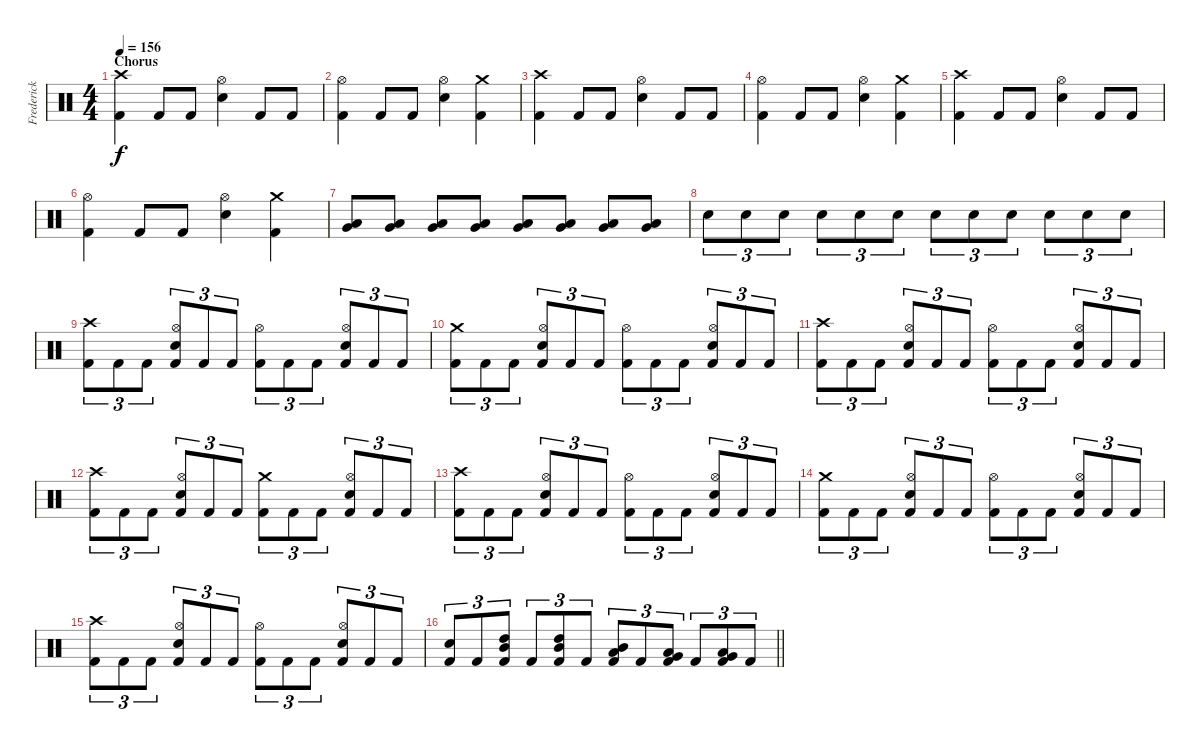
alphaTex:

\track ("Frederick Ehmke" "Frederick ") {instrument percussion}
\staff {score}
\articulation defaults
\ts (4 4)
\section ("" "Chorus")
\tempo 156
\clef neutral
\ks c
("Crash high (hit)" "Kick (hit) 2").4{dy f} "Kick (hit) 2".8 "Kick (hit) 2".8 ("Hi-Hat (open)" "Electric Snare (hit)").4 "Kick (hit) 2".8 "Kick (hit) 2".8 |
("Hi-Hat (open)" "Kick (hit) 2").4 "Kick (hit) 2".8 "Kick (hit) 2".8 ("Hi-Hat (open)" "Electric Snare (hit)").4 ("Crash medium (hit)" "Kick (hit) 2").4 |
("Crash high (hit)" "Kick (hit) 2").4 "Kick (hit) 2".8 "Kick (hit) 2".8 ("Hi-Hat (open)" "Electric Snare (hit)").4 "Kick (hit) 2".8 "Kick (hit) 2".8 |
("Hi-Hat (open)" "Kick (hit) 2").4 "Kick (hit) 2".8 "Kick (hit) 2".8 ("Hi-Hat (open)" "Electric Snare (hit)").4 ("Crash medium (hit)" "Kick (hit) 2").4 |
("Crash high (hit)" "Kick (hit) 2").4 "Kick (hit) 2".8 "Kick (hit) 2".8 ("Hi-Hat (open)" "Electric Snare (hit)").4 "Kick (hit) 2".8 "Kick (hit) 2".8 |
("Hi-Hat (open)" "Kick (hit) 2").4 "Kick (hit) 2".8 "Kick (hit) 2".8 ("Hi-Hat (open)" "Electric Snare (hit)").4 ("Crash medium (hit)" "Kick (hit) 2").4 |
("Low Tom (hit)" "Very Low Tom (hit)").8 ("Low Tom (hit)" "Very Low Tom (hit)").8 ("Low Tom (hit)" "Very Low Tom (hit)").8 ("Low Tom (hit)" "Very Low Tom (hit)").8 ("Low Tom (hit)" "Very Low Tom (hit)").8 ("Low Tom (hit)" "Very Low Tom (hit)").8 ("Low Tom (hit)" "Very Low Tom (hit)").8 ("Low Tom (hit)" "Very Low Tom (hit)").8 |
"Electric Snare (hit)".8{tu (3 2)} "Electric Snare (hit)".8{tu (3 2)} "Electric Snare (hit)".8{tu (3 2)} "Electric Snare (hit)".8{tu (3 2)} "Electric Snare (hit)".8{tu (3 2)} "Electric Snare (hit)".8{tu (3 2)} "Electric Snare (hit)".8{tu (3 2)} "Electric Snare (hit)".8{tu (3 2)} "Electric Snare (hit)".8{tu (3 2)} "Electric Snare (hit)".8{tu (3 2)} "Electric Snare (hit)".8{tu (3 2)} "Electric Snare (hit)".8{tu (3 2)} |
("Crash high (hit)" "Kick (hit) 2").8{tu (3 2)} "Kick (hit) 2".8{tu (3 2)} "Kick (hit) 2".8{tu (3 2)} ("Hi-Hat (open)" "Kick (hit) 2" "Electric Snare (hit)").8{tu (3 2)} "Kick (hit) 2".8{tu (3 2)} "Kick (hit) 2".8{tu (3 2)} ("Hi-Hat (open)" "Kick (hit) 2").8{tu (3 2)} "Kick (hit) 2".8{tu (3 2)} "Kick (hit) 2".8{tu (3 2)} ("Hi-Hat (open)" "Kick (hit) 2" "Electric Snare (hit)").8{tu (3 2)} "Kick (hit) 2".8{tu (3 2)} "Kick (hit) 2".8{tu (3 2)} |
("Crash medium (hit)" "Kick (hit) 2").8{tu (3 2)} "Kick (hit) 2".8{tu (3 2)} "Kick (hit) 2".8{tu (3 2)} ("Hi-Hat (open)" "Kick (hit) 2" "Electric Snare (hit)").8{tu (3 2)} "Kick (hit) 2".8{tu (3 2)} "Kick (hit) 2".8{tu (3 2)} ("Hi-Hat (open)" "Kick (hit) 2").8{tu (3 2)} "Kick (hit) 2".8{tu (3 2)} "Kick (hit) 2".8{tu (3 2)} ("Hi-Hat (open)" "Kick (hit) 2" "Electric Snare (hit)").8{tu (3 2)} "Kick (hit) 2".8{tu (3 2)} "Kick (hit) 2".8{tu (3 2)} |
("Crash high (hit)" "Kick (hit) 2").8{tu (3 2)} "Kick (hit) 2".8{tu (3 2)} "Kick (hit) 2".8{tu (3 2)} ("Hi-Hat (open)" "Kick (hit) 2" "Electric Snare (hit)").8{tu (3 2)} "Kick (hit) 2".8{tu (3 2)} "Kick (hit) 2".8{tu (3 2)} ("Hi-Hat (open)" "Kick (hit) 2").8{tu (3 2)} "Kick (hit) 2".8{tu (3 2)} "Kick (hit) 2".8{tu (3 2)} ("Hi-Hat (open)" "Kick (hit) 2" "Electric Snare (hit)").8{tu (3 2)} "Kick (hit) 2".8{tu (3 2)} "Kick (hit) 2".8{tu (3 2)} |
("Crash high (hit)" "Kick (hit) 2").8{tu (3 2)} "Kick (hit) 2".8{tu (3 2)} "Kick (hit) 2".8{tu (3 2)} ("Hi-Hat (open)" "Kick (hit) 2" "Electric Snare (hit)").8{tu (3 2)} "Kick (hit) 2".8{tu (3 2)} "Kick (hit) 2".8{tu (3 2)} ("Crash medium (hit)" "Kick (hit) 2").8{tu (3 2)} "Kick (hit) 2".8{tu (3 2)} "Kick (hit) 2".8{tu (3 2)} ("Hi-Hat (open)" "Kick (hit) 2" "Electric Snare (hit)").8{tu (3 2)} "Kick (hit) 2".8{tu (3 2)} "Kick (hit) 2".8{tu (3 2)} |
("Crash high (hit)" "Kick (hit) 2").8{tu (3 2)} "Kick (hit) 2".8{tu (3 2)} "Kick (hit) 2".8{tu (3 2)} ("Hi-Hat (open)" "Kick (hit) 2" "Electric Snare (hit)").8{tu (3 2)} "Kick (hit) 2".8{tu (3 2)} "Kick (hit) 2".8{tu (3 2)} ("Hi-Hat (open)" "Kick (hit) 2").8{tu (3 2)} "Kick (hit) 2".8{tu (3 2)} "Kick (hit) 2".8{tu (3 2)} ("Hi-Hat (open)" "Kick (hit) 2" "Electric Snare (hit)").8{tu (3 2)} "Kick (hit) 2".8{tu (3 2)} "Kick (hit) 2".8{tu (3 2)} |
("Crash medium (hit)" "Kick (hit) 2").8{tu (3 2)} "Kick (hit) 2".8{tu (3 2)} "Kick (hit) 2".8{tu (3 2)} ("Hi-Hat (open)" "Kick (hit) 2" "Electric Snare (hit)").8{tu (3 2)} "Kick (hit) 2".8{tu (3 2)} "Kick (hit) 2".8{tu (3 2)} ("Hi-Hat (open)" "Kick (hit) 2").8{tu (3 2)} "Kick (hit) 2".8{tu (3 2)} "Kick (hit) 2".8{tu (3 2)} ("Hi-Hat (open)" "Kick (hit) 2" "Electric Snare (hit)").8{tu (3 2)} "Kick (hit) 2".8{tu (3 2)} "Kick (hit) 2".8{tu (3 2)} |
("Crash high (hit)" "Kick (hit) 2").8{tu (3 2)} "Kick (hit) 2".8{tu (3 2)} "Kick (hit) 2".8{tu (3 2)} ("Hi-Hat (open)" "Kick (hit) 2" "Electric Snare (hit)").8{tu (3 2)} "Kick (hit) 2".8{tu (3 2)} "Kick (hit) 2".8{tu (3 2)} ("Hi-Hat (open)" "Kick (hit) 2").8{tu (3 2)} "Kick (hit) 2".8{tu (3 2)} "Kick (hit) 2".8{tu (3 2)} ("Hi-Hat (open)" "Kick (hit) 2" "Electric Snare (hit)").8{tu (3 2)} "Kick (hit) 2".8{tu (3 2)} "Kick (hit) 2".8{tu (3 2)} |
\barLineRight lightlight
("Kick (hit) 2" "Electric Snare (hit)").8{tu (3 2)} "Kick (hit) 2".8{tu (3 2)} ("Kick (hit) 2" "Mid Tom (hit)" "High Tom (hit)").8{tu (3 2)} "Kick (hit) 2".8{tu (3 2)} ("Kick (hit) 2" "Mid Tom (hit)" "High Tom (hit)").8{tu (3 2)} "Kick (hit) 2".8{tu (3 2)} ("Kick (hit) 2" "Low Tom (hit)" "Mid Tom (hit)").8{tu (3 2)} "Kick (hit) 2".8{tu (3 2)} ("Kick (hit) 2" "Low Tom (hit)" "Very Low Tom (hit)").8{tu (3 2)} "Kick (hit) 2".8{tu (3 2)} ("Kick (hit) 2" "Very Low Tom (hit)" "Low Floor Tom (hit)").8{tu (3 2)} "Kick (hit) 2".8{tu (3 2)}
